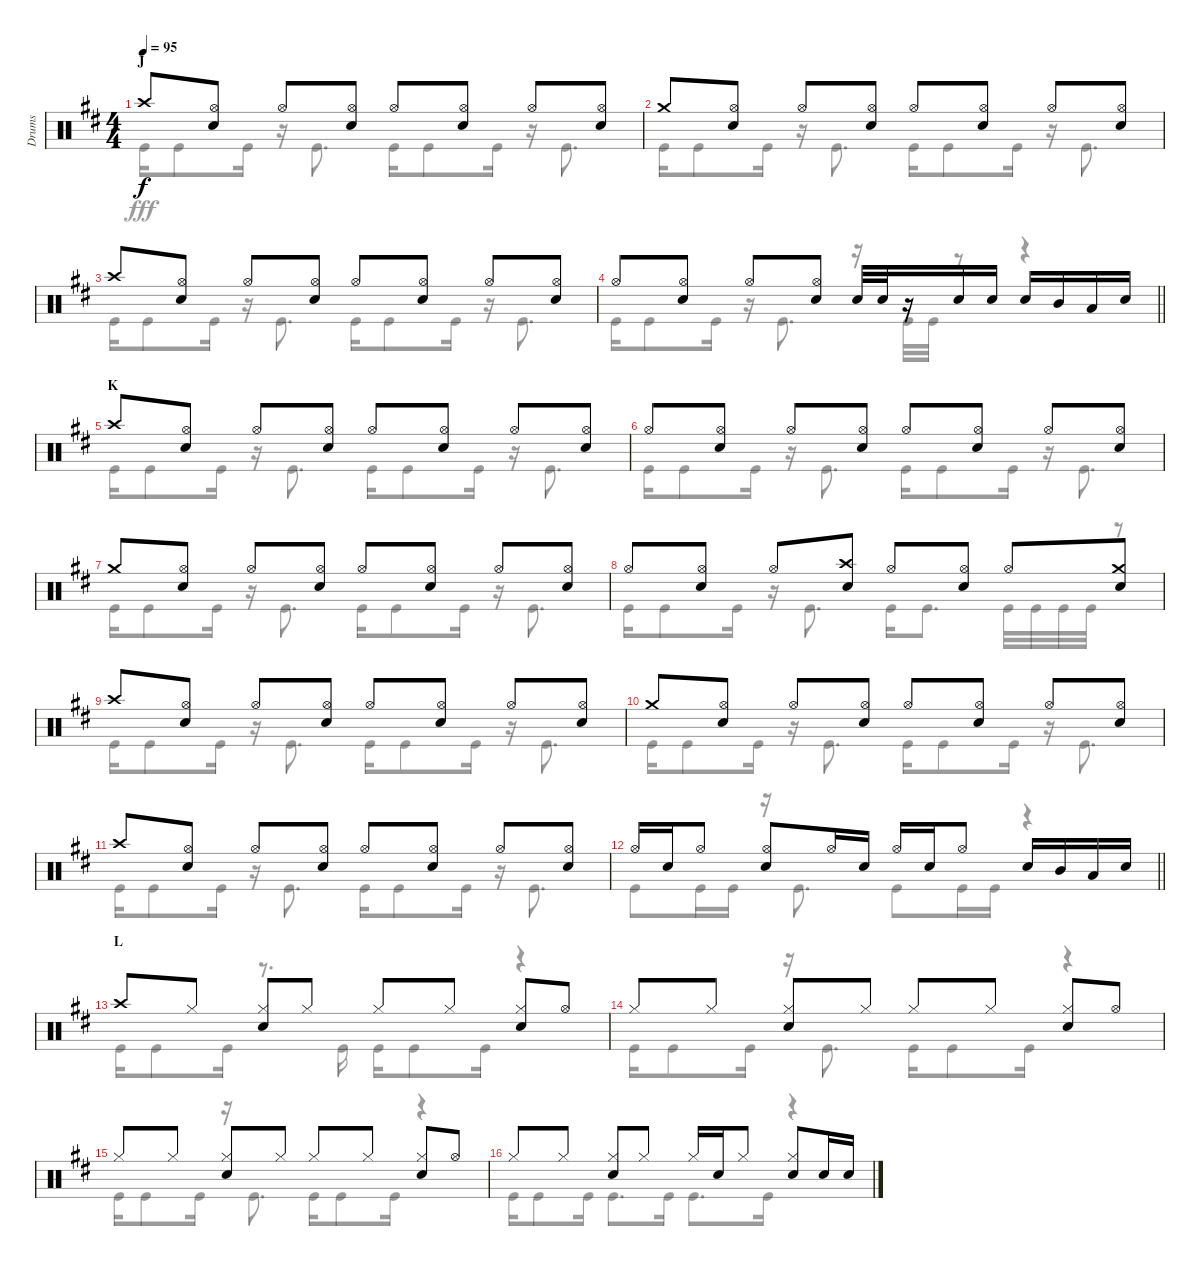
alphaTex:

\track ("Drums" "Drums") {instrument percussion}
\staff {score}
\articulation defaults
\voice
\ts (4 4)
\section ("" "J")
\tempo 95
\clef neutral
\ks d "Crash high (hit)".8{dy f}
("Hi-Hat (open)" "Snare (hit) 2").8 "Hi-Hat (open)".8 ("Hi-Hat (open)" "Snare (hit) 2").8 "Hi-Hat (open)".8 ("Hi-Hat (open)" "Snare (hit) 2").8 "Hi-Hat (open)".8 ("Hi-Hat (open)" "Snare (hit) 2").8 |
"Crash medium (hit)".8 ("Hi-Hat (open)" "Snare (hit) 2").8 "Hi-Hat (open)".8 ("Hi-Hat (open)" "Snare (hit) 2").8 "Hi-Hat (open)".8 ("Hi-Hat (open)" "Snare (hit) 2").8 "Hi-Hat (open)".8 ("Hi-Hat (open)" "Snare (hit) 2").8 |
"Crash high (hit)".8 ("Hi-Hat (open)" "Snare (hit) 2").8 "Hi-Hat (open)".8 ("Hi-Hat (open)" "Snare (hit) 2").8 "Hi-Hat (open)".8 ("Hi-Hat (open)" "Snare (hit) 2").8 "Hi-Hat (open)".8 ("Hi-Hat (open)" "Snare (hit) 2").8 |
\barLineRight lightlight "Hi-Hat (open)".8
("Hi-Hat (open)" "Snare (hit) 2").8 "Hi-Hat (open)".8 ("Hi-Hat (open)" "Snare (hit) 2").8 "Snare (hit) 2".32 "Snare (hit) 2".32 r.16 "Snare (hit) 2".16 "Snare (hit) 2".16 "Snare (hit) 2".16 "Mid Tom (hit)".16 "Low Tom (hit)".16 "Snare (hit) 2".16 |
\section ("" "K")
"Crash high (hit)".8 ("Hi-Hat (open)" "Snare (hit) 2").8 "Hi-Hat (open)".8 ("Hi-Hat (open)" "Snare (hit) 2").8 "Hi-Hat (open)".8 ("Hi-Hat (open)" "Snare (hit) 2").8 "Hi-Hat (open)".8 ("Hi-Hat (open)" "Snare (hit) 2").8 |
"Hi-Hat (open)".8 ("Hi-Hat (open)" "Snare (hit) 2").8 "Hi-Hat (open)".8 ("Hi-Hat (open)" "Snare (hit) 2").8 "Hi-Hat (open)".8 ("Hi-Hat (open)" "Snare (hit) 2").8 "Hi-Hat (open)".8 ("Hi-Hat (open)" "Snare (hit) 2").8 |
"Crash medium (hit)".8 ("Hi-Hat (open)" "Snare (hit) 2").8 "Hi-Hat (open)".8 ("Hi-Hat (open)" "Snare (hit) 2").8 "Hi-Hat (open)".8 ("Hi-Hat (open)" "Snare (hit) 2").8 "Hi-Hat (open)".8 ("Hi-Hat (open)" "Snare (hit) 2").8 |
"Hi-Hat (open)".8 ("Hi-Hat (open)" "Snare (hit) 2").8 "Hi-Hat (open)".8 ("Crash high (hit)" "Snare (hit) 2").8 "Hi-Hat (open)".8 ("Hi-Hat (open)" "Snare (hit) 2").8 "Hi-Hat (open)".8 ("Crash medium (hit)" "Snare (hit) 2").8 |
"Crash high (hit)".8 ("Hi-Hat (open)" "Snare (hit) 2").8 "Hi-Hat (open)".8 ("Hi-Hat (open)" "Snare (hit) 2").8 "Hi-Hat (open)".8 ("Hi-Hat (open)" "Snare (hit) 2").8 "Hi-Hat (open)".8 ("Hi-Hat (open)" "Snare (hit) 2").8 |
"Crash medium (hit)".8 ("Hi-Hat (open)" "Snare (hit) 2").8 "Hi-Hat (open)".8 ("Hi-Hat (open)" "Snare (hit) 2").8 "Hi-Hat (open)".8 ("Hi-Hat (open)" "Snare (hit) 2").8 "Hi-Hat (open)".8 ("Hi-Hat (open)" "Snare (hit) 2").8 |
"Crash high (hit)".8 ("Hi-Hat (open)" "Snare (hit) 2").8 "Hi-Hat (open)".8 ("Hi-Hat (open)" "Snare (hit) 2").8 "Hi-Hat (open)".8 ("Hi-Hat (open)" "Snare (hit) 2").8 "Hi-Hat (open)".8 ("Hi-Hat (open)" "Snare (hit) 2").8 |
\barLineRight lightlight "Hi-Hat (open)".16 "Snare (hit) 2".16 "Hi-Hat (open)".8
("Hi-Hat (open)" "Snare (hit) 2").8 "Hi-Hat (open)".16 "Snare (hit) 2".16 "Hi-Hat (open)".16 "Snare (hit) 2".16 "Hi-Hat (open)".8 "Snare (hit) 2".16 "Mid Tom (hit)".16 "Low Tom (hit)".16 "Snare (hit) 2".16 |
\section ("" "L")
"Crash high (hit)".8 "Hi-Hat (closed)".8 ("Hi-Hat (closed)" "Snare (hit) 2").8 "Hi-Hat (closed)".8 "Hi-Hat (closed)".8 "Hi-Hat (closed)".8 ("Hi-Hat (closed)" "Snare (hit) 2").8 "Hi-Hat (open)".8 |
"Hi-Hat (closed)".8 "Hi-Hat (closed)".8 ("Hi-Hat (closed)" "Snare (hit) 2").8 "Hi-Hat (closed)".8 "Hi-Hat (closed)".8 "Hi-Hat (closed)".8 ("Hi-Hat (closed)" "Snare (hit) 2").8 "Hi-Hat (open)".8 |
"Hi-Hat (closed)".8 "Hi-Hat (closed)".8 ("Hi-Hat (closed)" "Snare (hit) 2").8 "Hi-Hat (closed)".8 "Hi-Hat (closed)".8 "Hi-Hat (closed)".8 ("Hi-Hat (closed)" "Snare (hit) 2").8 "Hi-Hat (open)".8 |
"Hi-Hat (closed)".8 "Hi-Hat (closed)".8 ("Hi-Hat (closed)" "Snare (hit) 2").8 "Hi-Hat (closed)".8 "Hi-Hat (closed)".16 "Snare (hit) 2".16 "Hi-Hat (closed)".8 ("Hi-Hat (closed)" "Snare (hit) 2").8 "Snare (hit) 2".16 "Snare (hit) 2".16
\voice
\clef neutral
\ottava regular
\simile none
\ks d "Kick (hit)".16{dy fff} "Kick (hit)".8 "Kick (hit)".16
r.16 "Kick (hit)".8{d} "Kick (hit)".16 "Kick (hit)".8 "Kick (hit)".16 r.16 "Kick (hit)".8{d} |
"Kick (hit)".16 "Kick (hit)".8 "Kick (hit)".16 r.16 "Kick (hit)".8{d} "Kick (hit)".16 "Kick (hit)".8 "Kick (hit)".16 r.16 "Kick (hit)".8{d} |
"Kick (hit)".16 "Kick (hit)".8 "Kick (hit)".16 r.16 "Kick (hit)".8{d} "Kick (hit)".16 "Kick (hit)".8 "Kick (hit)".16 r.16 "Kick (hit)".8{d} |
\barLineRight lightlight "Kick (hit)".16 "Kick (hit)".8 "Kick (hit)".16
r.16 "Kick (hit)".8{d} r.16 "Kick (hit)".32 "Kick (hit)".32 r.8 r.4 |
"Kick (hit)".16 "Kick (hit)".8 "Kick (hit)".16 r.16 "Kick (hit)".8{d} "Kick (hit)".16 "Kick (hit)".8 "Kick (hit)".16 r.16 "Kick (hit)".8{d} |
"Kick (hit)".16 "Kick (hit)".8 "Kick (hit)".16 r.16 "Kick (hit)".8{d} "Kick (hit)".16 "Kick (hit)".8 "Kick (hit)".16 r.16 "Kick (hit)".8{d} |
"Kick (hit)".16 "Kick (hit)".8 "Kick (hit)".16 r.16 "Kick (hit)".8{d} "Kick (hit)".16 "Kick (hit)".8 "Kick (hit)".16 r.16 "Kick (hit)".8{d} |
"Kick (hit)".16 "Kick (hit)".8 "Kick (hit)".16 r.16 "Kick (hit)".8{d} "Kick (hit)".16 "Kick (hit)".8{d} "Kick (hit)".32 "Kick (hit)".32 "Kick (hit)".32 "Kick (hit)".32 r.8 |
"Kick (hit)".16 "Kick (hit)".8 "Kick (hit)".16 r.16 "Kick (hit)".8{d} "Kick (hit)".16 "Kick (hit)".8 "Kick (hit)".16 r.16 "Kick (hit)".8{d} |
"Kick (hit)".16 "Kick (hit)".8 "Kick (hit)".16 r.16 "Kick (hit)".8{d} "Kick (hit)".16 "Kick (hit)".8 "Kick (hit)".16 r.16 "Kick (hit)".8{d} |
"Kick (hit)".16 "Kick (hit)".8 "Kick (hit)".16 r.16 "Kick (hit)".8{d} "Kick (hit)".16 "Kick (hit)".8 "Kick (hit)".16 r.16 "Kick (hit)".8{d} |
\barLineRight lightlight "Kick (hit)".8 "Kick (hit)".16 "Kick (hit)".16
r.16 "Kick (hit)".8{d} "Kick (hit)".8 "Kick (hit)".16 "Kick (hit)".16 r.4 |
"Kick (hit)".16 "Kick (hit)".8 "Kick (hit)".16 r.8{d} "Kick (hit)".16 "Kick (hit)".16 "Kick (hit)".8 "Kick (hit)".16 r.4 |
"Kick (hit)".16 "Kick (hit)".8 "Kick (hit)".16 r.16 "Kick (hit)".8{d} "Kick (hit)".16 "Kick (hit)".8 "Kick (hit)".16 r.4 |
"Kick (hit)".16 "Kick (hit)".8 "Kick (hit)".16 r.16 "Kick (hit)".8{d} "Kick (hit)".16 "Kick (hit)".8 "Kick (hit)".16 r.4 |
"Kick (hit)".16 "Kick (hit)".8 "Kick (hit)".16 "Kick (hit)".8{d} "Kick (hit)".16 "Kick (hit)".8{d} "Kick (hit)".16 r.4
